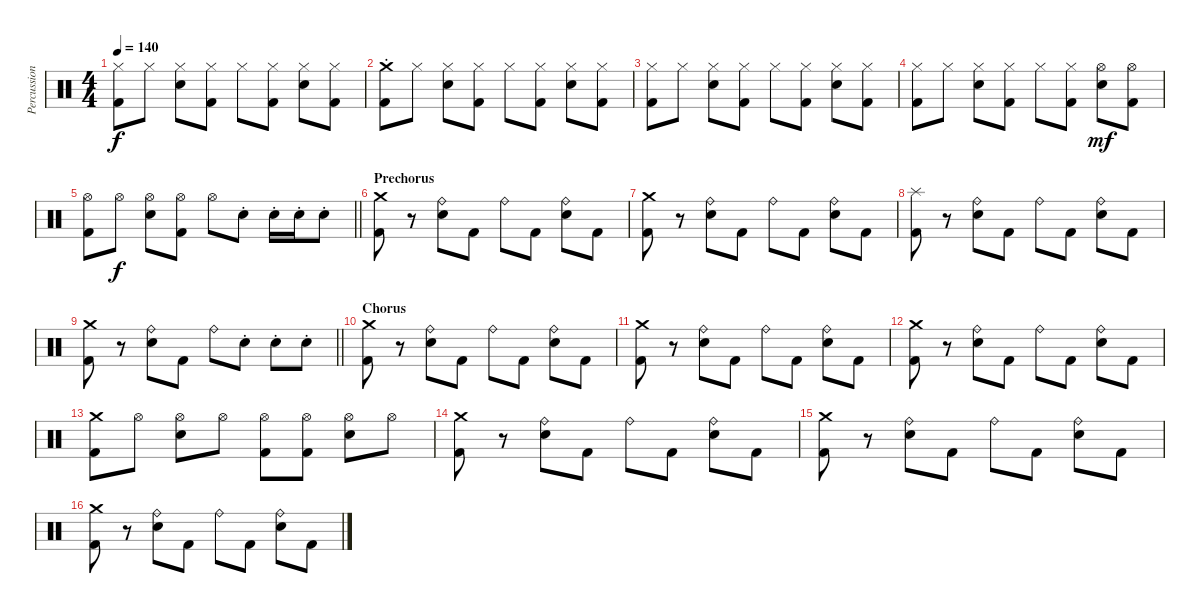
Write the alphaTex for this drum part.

\track ("Percussion" "Percussion") {instrument percussion}
\staff {score}
\articulation defaults
\ts (4 4)
\tempo 140
\clef neutral
\ks c
("Hi-Hat (closed)" "Kick (hit) 2").8{dy f} "Hi-Hat (closed)".8 ("Hi-Hat (closed)" "Snare (hit) 2").8 ("Hi-Hat (closed)" "Kick (hit) 2").8 "Hi-Hat (closed)".8 ("Hi-Hat (closed)" "Kick (hit) 2").8 ("Hi-Hat (closed)" "Snare (hit) 2").8 ("Hi-Hat (closed)" "Kick (hit) 2").8 |
("Crash medium (hit)"{st} "Kick (hit) 2").8 "Hi-Hat (closed)".8 ("Hi-Hat (closed)" "Snare (hit) 2").8 ("Hi-Hat (closed)" "Kick (hit) 2").8 "Hi-Hat (closed)".8 ("Hi-Hat (closed)" "Kick (hit) 2").8 ("Hi-Hat (closed)" "Snare (hit) 2").8 ("Hi-Hat (closed)" "Kick (hit) 2").8 |
("Hi-Hat (closed)" "Kick (hit) 2").8 "Hi-Hat (closed)".8 ("Hi-Hat (closed)" "Snare (hit) 2").8 ("Hi-Hat (closed)" "Kick (hit) 2").8 "Hi-Hat (closed)".8 ("Hi-Hat (closed)" "Kick (hit) 2").8 ("Hi-Hat (closed)" "Snare (hit) 2").8 ("Hi-Hat (closed)" "Kick (hit) 2").8 |
("Hi-Hat (closed)" "Kick (hit) 2").8 "Hi-Hat (closed)".8 ("Hi-Hat (closed)" "Snare (hit) 2").8 ("Hi-Hat (closed)" "Kick (hit) 2").8 "Hi-Hat (closed)".8 ("Hi-Hat (closed)" "Kick (hit) 2").8 ("Hi-Hat (open)" "Snare (hit) 2").8{dy mf} ("Hi-Hat (open)" "Kick (hit) 2").8 |
\barLineRight lightlight
("Hi-Hat (open)" "Kick (hit) 2").8 "Hi-Hat (open)".8{dy f} ("Hi-Hat (open)" "Snare (hit) 2").8 ("Hi-Hat (open)" "Kick (hit) 2").8 "Hi-Hat (open)".8 "Snare (hit) 2"{st}.8 "Snare (hit) 2"{st}.16 "Snare (hit) 2"{st}.16 "Snare (hit) 2"{st}.8 |
\section ("" "Prechorus")
("Crash medium (hit)" "Kick (hit) 2").8 r.8 ("Ride (bell)" "Snare (hit) 2").8 "Kick (hit) 2".8 "Ride (bell)".8 "Kick (hit) 2".8 ("Ride (bell)" "Snare (hit) 2").8 "Kick (hit) 2".8 |
("Crash medium (hit)" "Kick (hit) 2").8 r.8 ("Ride (bell)" "Snare (hit) 2").8 "Kick (hit) 2".8 "Ride (bell)".8 "Kick (hit) 2".8 ("Ride (bell)" "Snare (hit) 2").8 "Kick (hit) 2".8 |
("Splash (hit)" "Kick (hit) 2").8 r.8 ("Ride (bell)" "Snare (hit) 2").8 "Kick (hit) 2".8 "Ride (bell)".8 "Kick (hit) 2".8 ("Ride (bell)" "Snare (hit) 2").8 "Kick (hit) 2".8 |
\barLineRight lightlight
("Crash medium (hit)" "Kick (hit) 2").8 r.8 ("Ride (bell)" "Snare (hit) 2").8 "Kick (hit) 2".8 "Ride (bell)".8 "Snare (hit) 2"{st}.8 "Snare (hit) 2"{st}.8 "Snare (hit) 2"{st}.8 |
\section ("" "Chorus")
("Crash medium (hit)" "Kick (hit) 2").8 r.8 ("Ride (bell)" "Snare (hit) 2").8 "Kick (hit) 2".8 "Ride (bell)".8 "Kick (hit) 2".8 ("Ride (bell)" "Snare (hit) 2").8 "Kick (hit) 2".8 |
("Crash medium (hit)" "Kick (hit) 2").8 r.8 ("Ride (bell)" "Snare (hit) 2").8 "Kick (hit) 2".8 "Ride (bell)".8 "Kick (hit) 2".8 ("Ride (bell)" "Snare (hit) 2").8 "Kick (hit) 2".8 |
("Crash medium (hit)" "Kick (hit) 2").8 r.8 ("Ride (bell)" "Snare (hit) 2").8 "Kick (hit) 2".8 "Ride (bell)".8 "Kick (hit) 2".8 ("Ride (bell)" "Snare (hit) 2").8 "Kick (hit) 2".8 |
("Crash medium (hit)" "Kick (hit) 2").8 "Hi-Hat (open)".8 ("Hi-Hat (open)" "Snare (hit) 2").8 "Hi-Hat (open)".8 ("Hi-Hat (open)" "Kick (hit) 2").8 ("Hi-Hat (open)" "Kick (hit) 2").8 ("Hi-Hat (open)" "Snare (hit) 2").8 "Hi-Hat (open)".8 |
("Crash medium (hit)" "Kick (hit) 2").8 r.8 ("Ride (bell)" "Snare (hit) 2").8 "Kick (hit) 2".8 "Ride (bell)".8 "Kick (hit) 2".8 ("Ride (bell)" "Snare (hit) 2").8 "Kick (hit) 2".8 |
("Crash medium (hit)" "Kick (hit) 2").8 r.8 ("Ride (bell)" "Snare (hit) 2").8 "Kick (hit) 2".8 "Ride (bell)".8 "Kick (hit) 2".8 ("Ride (bell)" "Snare (hit) 2").8 "Kick (hit) 2".8 |
("Crash medium (hit)" "Kick (hit) 2").8 r.8 ("Ride (bell)" "Snare (hit) 2").8 "Kick (hit) 2".8 "Ride (bell)".8 "Kick (hit) 2".8 ("Ride (bell)" "Snare (hit) 2").8 "Kick (hit) 2".8
